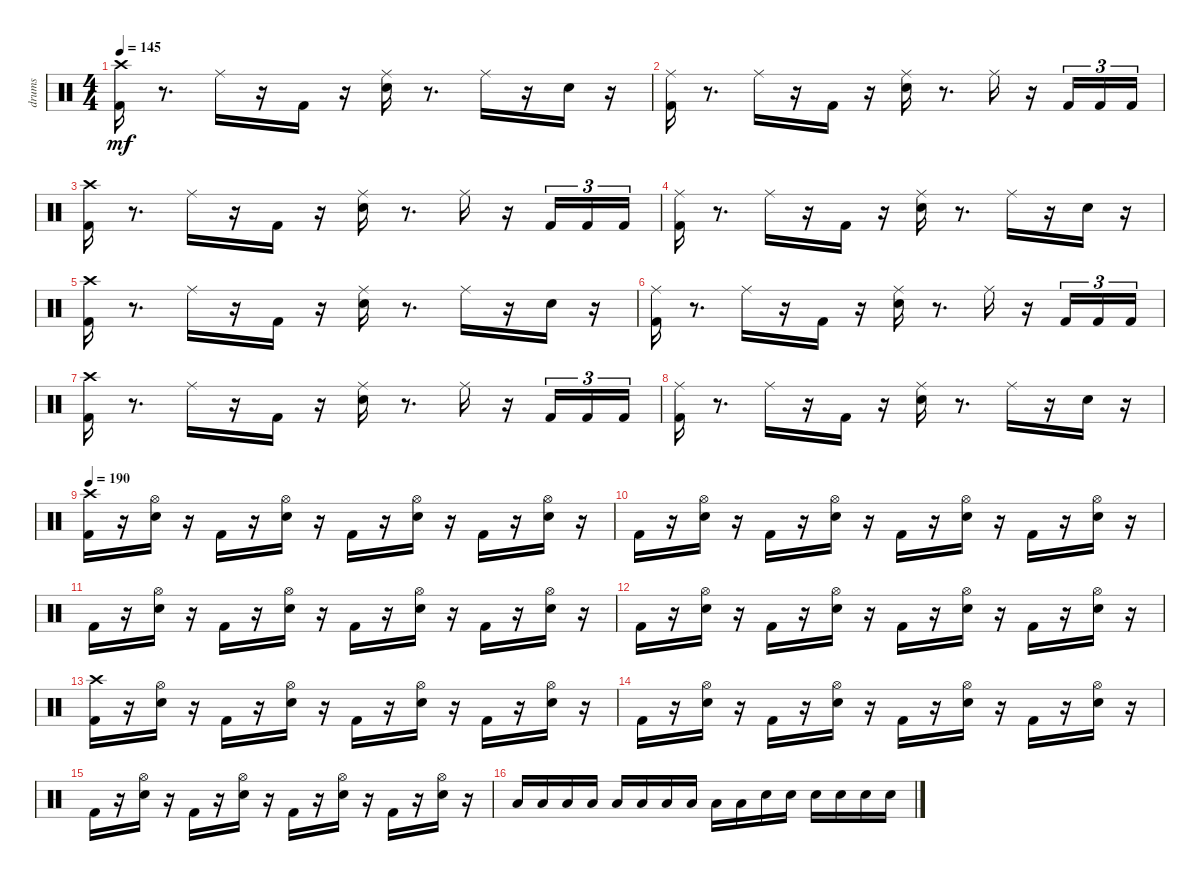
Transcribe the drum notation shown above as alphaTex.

\track ("drums               " "drums     ") {instrument percussion}
\staff {score}
\articulation defaults
\ts (4 4)
\tempo 145
\clef neutral
\ks c
("Kick (hit) 2" "Crash high (hit)").16{dy mf} r.8{d} "Ride (middle)".16 r.16 "Kick (hit) 2".16 r.16 ("Ride (middle)" "Snare (hit) 2").16 r.8{d} "Ride (middle)".16 r.16 "Snare (hit) 2".16 r.16 |
("Kick (hit) 2" "Ride (middle)").16 r.8{d} "Ride (middle)".16 r.16 "Kick (hit) 2".16 r.16 ("Ride (middle)" "Snare (hit) 2").16 r.8{d} "Ride (middle)".16 r.16 "Kick (hit) 2".16{tu (3 2)} "Kick (hit) 2".16{tu (3 2)} "Kick (hit) 2".16{tu (3 2)} |
("Kick (hit) 2" "Crash high (hit)").16 r.8{d} "Ride (middle)".16 r.16 "Kick (hit) 2".16 r.16 ("Ride (middle)" "Snare (hit) 2").16 r.8{d} "Ride (middle)".16 r.16 "Kick (hit) 2".16{tu (3 2)} "Kick (hit) 2".16{tu (3 2)} "Kick (hit) 2".16{tu (3 2)} |
("Kick (hit) 2" "Ride (middle)").16 r.8{d} "Ride (middle)".16 r.16 "Kick (hit) 2".16 r.16 ("Ride (middle)" "Snare (hit) 2").16 r.8{d} "Ride (middle)".16 r.16 "Snare (hit) 2".16 r.16 |
("Kick (hit) 2" "Crash high (hit)").16 r.8{d} "Ride (middle)".16 r.16 "Kick (hit) 2".16 r.16 ("Ride (middle)" "Snare (hit) 2").16 r.8{d} "Ride (middle)".16 r.16 "Snare (hit) 2".16 r.16 |
("Kick (hit) 2" "Ride (middle)").16 r.8{d} "Ride (middle)".16 r.16 "Kick (hit) 2".16 r.16 ("Ride (middle)" "Snare (hit) 2").16 r.8{d} "Ride (middle)".16 r.16 "Kick (hit) 2".16{tu (3 2)} "Kick (hit) 2".16{tu (3 2)} "Kick (hit) 2".16{tu (3 2)} |
("Kick (hit) 2" "Crash high (hit)").16 r.8{d} "Ride (middle)".16 r.16 "Kick (hit) 2".16 r.16 ("Ride (middle)" "Snare (hit) 2").16 r.8{d} "Ride (middle)".16 r.16 "Kick (hit) 2".16{tu (3 2)} "Kick (hit) 2".16{tu (3 2)} "Kick (hit) 2".16{tu (3 2)} |
("Kick (hit) 2" "Ride (middle)").16 r.8{d} "Ride (middle)".16 r.16 "Kick (hit) 2".16 r.16 ("Ride (middle)" "Snare (hit) 2").16 r.8{d} "Ride (middle)".16 r.16 "Snare (hit) 2".16 r.16 |
\tempo 190
("Kick (hit) 2" "Crash high (hit)").16 r.16 ("Snare (hit) 2" "Hi-Hat (open)").16 r.16 "Kick (hit) 2".16 r.16 ("Snare (hit) 2" "Hi-Hat (open)").16 r.16 "Kick (hit) 2".16 r.16 ("Snare (hit) 2" "Hi-Hat (open)").16 r.16 "Kick (hit) 2".16 r.16 ("Snare (hit) 2" "Hi-Hat (open)").16 r.16 |
"Kick (hit) 2".16 r.16 ("Snare (hit) 2" "Hi-Hat (open)").16 r.16 "Kick (hit) 2".16 r.16 ("Snare (hit) 2" "Hi-Hat (open)").16 r.16 "Kick (hit) 2".16 r.16 ("Snare (hit) 2" "Hi-Hat (open)").16 r.16 "Kick (hit) 2".16 r.16 ("Snare (hit) 2" "Hi-Hat (open)").16 r.16 |
"Kick (hit) 2".16 r.16 ("Snare (hit) 2" "Hi-Hat (open)").16 r.16 "Kick (hit) 2".16 r.16 ("Snare (hit) 2" "Hi-Hat (open)").16 r.16 "Kick (hit) 2".16 r.16 ("Snare (hit) 2" "Hi-Hat (open)").16 r.16 "Kick (hit) 2".16 r.16 ("Snare (hit) 2" "Hi-Hat (open)").16 r.16 |
"Kick (hit) 2".16 r.16 ("Snare (hit) 2" "Hi-Hat (open)").16 r.16 "Kick (hit) 2".16 r.16 ("Snare (hit) 2" "Hi-Hat (open)").16 r.16 "Kick (hit) 2".16 r.16 ("Snare (hit) 2" "Hi-Hat (open)").16 r.16 "Kick (hit) 2".16 r.16 ("Snare (hit) 2" "Hi-Hat (open)").16 r.16 |
("Kick (hit) 2" "Crash high (hit)").16 r.16 ("Snare (hit) 2" "Hi-Hat (open)").16 r.16 "Kick (hit) 2".16 r.16 ("Snare (hit) 2" "Hi-Hat (open)").16 r.16 "Kick (hit) 2".16 r.16 ("Snare (hit) 2" "Hi-Hat (open)").16 r.16 "Kick (hit) 2".16 r.16 ("Snare (hit) 2" "Hi-Hat (open)").16 r.16 |
"Kick (hit) 2".16 r.16 ("Snare (hit) 2" "Hi-Hat (open)").16 r.16 "Kick (hit) 2".16 r.16 ("Snare (hit) 2" "Hi-Hat (open)").16 r.16 "Kick (hit) 2".16 r.16 ("Snare (hit) 2" "Hi-Hat (open)").16 r.16 "Kick (hit) 2".16 r.16 ("Snare (hit) 2" "Hi-Hat (open)").16 r.16 |
"Kick (hit) 2".16 r.16 ("Snare (hit) 2" "Hi-Hat (open)").16 r.16 "Kick (hit) 2".16 r.16 ("Snare (hit) 2" "Hi-Hat (open)").16 r.16 "Kick (hit) 2".16 r.16 ("Snare (hit) 2" "Hi-Hat (open)").16 r.16 "Kick (hit) 2".16 r.16 ("Snare (hit) 2" "Hi-Hat (open)").16 r.16 |
"Low Tom (hit)".16 "Low Tom (hit)".16 "Low Tom (hit)".16 "Low Floor Tom (hit)".16 "Low Floor Tom (hit)".16 "Low Floor Tom (hit)".16 "Low Tom (hit)".16 "Low Tom (hit)".16 "Low Tom (hit)".16 "Low Tom (hit)".16 "Snare (hit) 2".16 "Snare (hit) 2".16 "Snare (hit) 2".16 "Snare (hit) 2".16 "Snare (hit) 2".16 "Snare (hit) 2".16
